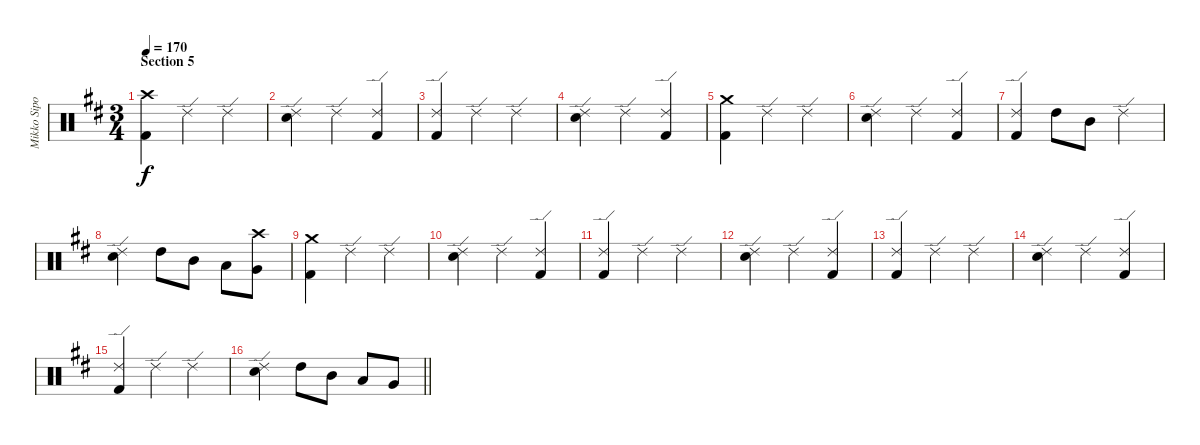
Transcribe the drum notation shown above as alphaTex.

\track ("Mikko Sipola (drums)" "Mikko Sipo") {instrument percussion}
\staff {score}
\articulation defaults
\ts (3 4)
\section ("" "Section 5")
\tempo 170
\clef neutral
\ks bminor
("Crash high (hit)" "Kick (hit) 2").4{dy f} "Ride (edge) 2".4 "Ride (edge) 2".4 |
("Ride (edge) 2" "Electric Snare (hit)").4 "Ride (edge) 2".4 ("Ride (edge) 2" "Kick (hit) 2").4 |
("Ride (edge) 2" "Kick (hit) 2").4 "Ride (edge) 2".4 "Ride (edge) 2".4 |
("Ride (edge) 2" "Electric Snare (hit)").4 "Ride (edge) 2".4 ("Ride (edge) 2" "Kick (hit) 2").4 |
("Crash medium (hit)" "Kick (hit) 2").4 "Ride (edge) 2".4 "Ride (edge) 2".4 |
("Ride (edge) 2" "Electric Snare (hit)").4 "Ride (edge) 2".4 ("Ride (edge) 2" "Kick (hit) 2").4 |
("Ride (edge) 2" "Kick (hit) 2").4 "High Tom (hit)".8 "Mid Tom (hit)".8 "Ride (edge) 2".4 |
("Ride (edge) 2" "Electric Snare (hit)").4 "High Tom (hit)".8 "Mid Tom (hit)".8 "Low Tom (hit)".8 ("Very Low Tom (hit)" "Crash high (hit)").8 |
("Crash medium (hit)" "Kick (hit) 2").4 "Ride (edge) 2".4 "Ride (edge) 2".4 |
("Ride (edge) 2" "Electric Snare (hit)").4 "Ride (edge) 2".4 ("Ride (edge) 2" "Kick (hit) 2").4 |
("Ride (edge) 2" "Kick (hit) 2").4 "Ride (edge) 2".4 "Ride (edge) 2".4 |
("Ride (edge) 2" "Electric Snare (hit)").4 "Ride (edge) 2".4 ("Ride (edge) 2" "Kick (hit) 2").4 |
("Ride (edge) 2" "Kick (hit) 2").4 "Ride (edge) 2".4 "Ride (edge) 2".4 |
("Ride (edge) 2" "Electric Snare (hit)").4 "Ride (edge) 2".4 ("Ride (edge) 2" "Kick (hit) 2").4 |
("Ride (edge) 2" "Kick (hit) 2").4 "Ride (edge) 2".4 "Ride (edge) 2".4 |
\barLineRight lightlight
("Ride (edge) 2" "Electric Snare (hit)").4 "High Tom (hit)".8 "Mid Tom (hit)".8 "Low Tom (hit)".8 "Very Low Tom (hit)".8
